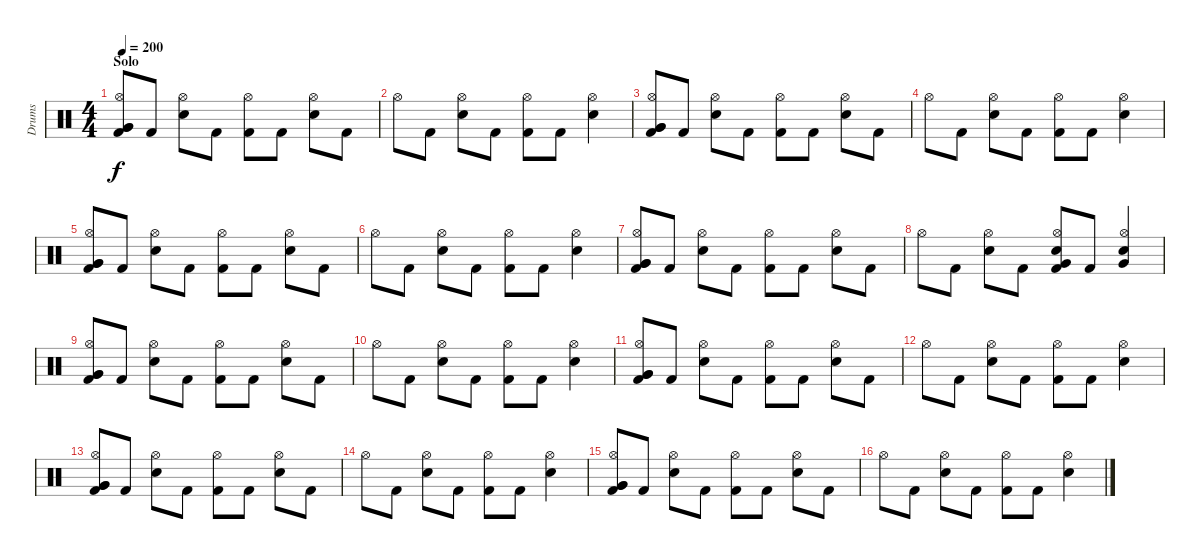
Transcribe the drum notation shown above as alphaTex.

\track ("Drums" "Drums") {instrument percussion}
\staff {score}
\articulation defaults
\ts (4 4)
\section ("" "Solo")
\tempo 200
\clef neutral
\ks c
("Very Low Tom (hit)" "Very Low Tom (hit)" "Hi-Hat (open)" "Kick (hit) 2").8{dy f} "Kick (hit) 2".8 ("Electric Snare (hit)" "Hi-Hat (open)").8 "Kick (hit) 2".8 ("Hi-Hat (open)" "Kick (hit) 2").8 "Kick (hit) 2".8 ("Electric Snare (hit)" "Hi-Hat (open)").8 "Kick (hit) 2".8 |
"Hi-Hat (open)".8 "Kick (hit) 2".8 ("Electric Snare (hit)" "Hi-Hat (open)").8 "Kick (hit) 2".8 ("Hi-Hat (open)" "Kick (hit) 2").8 "Kick (hit) 2".8 ("Electric Snare (hit)" "Hi-Hat (open)").4 |
("Very Low Tom (hit)" "Very Low Tom (hit)" "Hi-Hat (open)" "Kick (hit) 2").8 "Kick (hit) 2".8 ("Electric Snare (hit)" "Hi-Hat (open)").8 "Kick (hit) 2".8 ("Hi-Hat (open)" "Kick (hit) 2").8 "Kick (hit) 2".8 ("Electric Snare (hit)" "Hi-Hat (open)").8 "Kick (hit) 2".8 |
"Hi-Hat (open)".8 "Kick (hit) 2".8 ("Electric Snare (hit)" "Hi-Hat (open)").8 "Kick (hit) 2".8 ("Hi-Hat (open)" "Kick (hit) 2").8 "Kick (hit) 2".8 ("Electric Snare (hit)" "Hi-Hat (open)").4 |
("Very Low Tom (hit)" "Very Low Tom (hit)" "Hi-Hat (open)" "Kick (hit) 2").8 "Kick (hit) 2".8 ("Electric Snare (hit)" "Hi-Hat (open)").8 "Kick (hit) 2".8 ("Hi-Hat (open)" "Kick (hit) 2").8 "Kick (hit) 2".8 ("Electric Snare (hit)" "Hi-Hat (open)").8 "Kick (hit) 2".8 |
"Hi-Hat (open)".8 "Kick (hit) 2".8 ("Electric Snare (hit)" "Hi-Hat (open)").8 "Kick (hit) 2".8 ("Hi-Hat (open)" "Kick (hit) 2").8 "Kick (hit) 2".8 ("Electric Snare (hit)" "Hi-Hat (open)").4 |
("Very Low Tom (hit)" "Very Low Tom (hit)" "Hi-Hat (open)" "Kick (hit) 2").8 "Kick (hit) 2".8 ("Electric Snare (hit)" "Hi-Hat (open)").8 "Kick (hit) 2".8 ("Hi-Hat (open)" "Kick (hit) 2").8 "Kick (hit) 2".8 ("Electric Snare (hit)" "Hi-Hat (open)").8 "Kick (hit) 2".8 |
"Hi-Hat (open)".8 "Kick (hit) 2".8 ("Electric Snare (hit)" "Hi-Hat (open)").8 "Kick (hit) 2".8 ("Very Low Tom (hit)" "Electric Snare (hit)" "Hi-Hat (open)" "Kick (hit) 2").8 "Kick (hit) 2".8 ("Very Low Tom (hit)" "Electric Snare (hit)" "Hi-Hat (open)").4 |
("Very Low Tom (hit)" "Very Low Tom (hit)" "Hi-Hat (open)" "Kick (hit) 2").8 "Kick (hit) 2".8 ("Electric Snare (hit)" "Hi-Hat (open)").8 "Kick (hit) 2".8 ("Hi-Hat (open)" "Kick (hit) 2").8 "Kick (hit) 2".8 ("Electric Snare (hit)" "Hi-Hat (open)").8 "Kick (hit) 2".8 |
"Hi-Hat (open)".8 "Kick (hit) 2".8 ("Electric Snare (hit)" "Hi-Hat (open)").8 "Kick (hit) 2".8 ("Hi-Hat (open)" "Kick (hit) 2").8 "Kick (hit) 2".8 ("Electric Snare (hit)" "Hi-Hat (open)").4 |
("Very Low Tom (hit)" "Very Low Tom (hit)" "Hi-Hat (open)" "Kick (hit) 2").8 "Kick (hit) 2".8 ("Electric Snare (hit)" "Hi-Hat (open)").8 "Kick (hit) 2".8 ("Hi-Hat (open)" "Kick (hit) 2").8 "Kick (hit) 2".8 ("Electric Snare (hit)" "Hi-Hat (open)").8 "Kick (hit) 2".8 |
"Hi-Hat (open)".8 "Kick (hit) 2".8 ("Electric Snare (hit)" "Hi-Hat (open)").8 "Kick (hit) 2".8 ("Hi-Hat (open)" "Kick (hit) 2").8 "Kick (hit) 2".8 ("Electric Snare (hit)" "Hi-Hat (open)").4 |
("Very Low Tom (hit)" "Very Low Tom (hit)" "Hi-Hat (open)" "Kick (hit) 2").8 "Kick (hit) 2".8 ("Electric Snare (hit)" "Hi-Hat (open)").8 "Kick (hit) 2".8 ("Hi-Hat (open)" "Kick (hit) 2").8 "Kick (hit) 2".8 ("Electric Snare (hit)" "Hi-Hat (open)").8 "Kick (hit) 2".8 |
"Hi-Hat (open)".8 "Kick (hit) 2".8 ("Electric Snare (hit)" "Hi-Hat (open)").8 "Kick (hit) 2".8 ("Hi-Hat (open)" "Kick (hit) 2").8 "Kick (hit) 2".8 ("Electric Snare (hit)" "Hi-Hat (open)").4 |
("Very Low Tom (hit)" "Very Low Tom (hit)" "Hi-Hat (open)" "Kick (hit) 2").8 "Kick (hit) 2".8 ("Electric Snare (hit)" "Hi-Hat (open)").8 "Kick (hit) 2".8 ("Hi-Hat (open)" "Kick (hit) 2").8 "Kick (hit) 2".8 ("Electric Snare (hit)" "Hi-Hat (open)").8 "Kick (hit) 2".8 |
"Hi-Hat (open)".8 "Kick (hit) 2".8 ("Electric Snare (hit)" "Hi-Hat (open)").8 "Kick (hit) 2".8 ("Hi-Hat (open)" "Kick (hit) 2").8 "Kick (hit) 2".8 ("Electric Snare (hit)" "Hi-Hat (open)").4
